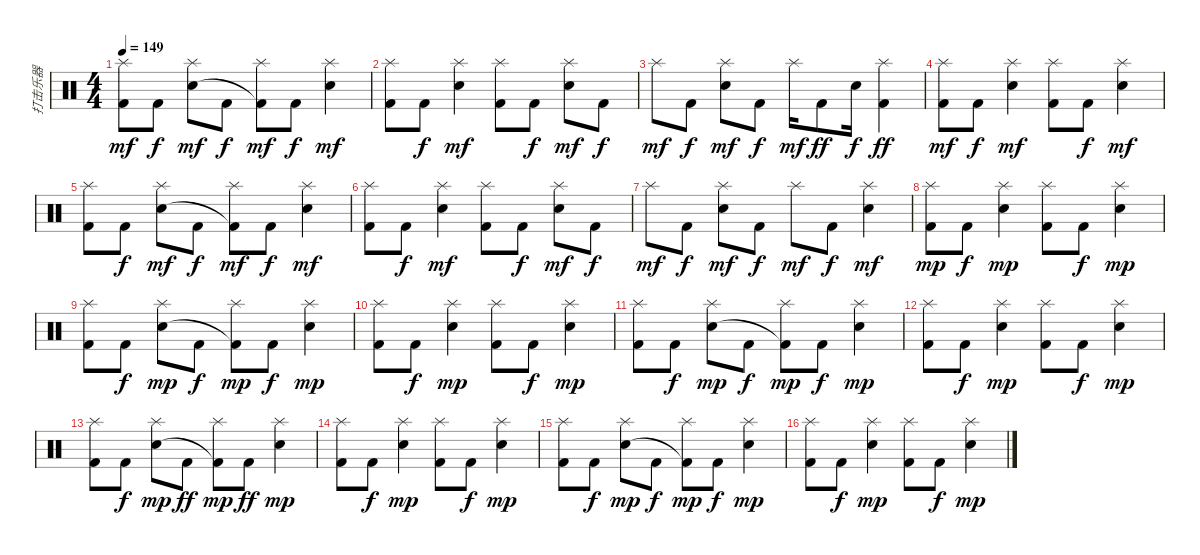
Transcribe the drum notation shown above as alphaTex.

\track ("打击乐器" "打击乐器") {instrument percussion}
\staff {score}
\articulation defaults
\ts (4 4)
\tempo 149
\clef neutral
\ks c
("Splash (hit)" "Kick (hit) 2").8{dy mf} "Kick (hit) 2".8{dy f} ("Splash (hit)" "Electric Snare (hit)").8{dy mf} "Kick (hit) 2".8{dy f} ("Splash (hit)" "Kick (hit) 2"{t}).8{dy mf} "Kick (hit) 2".8{dy f} ("Splash (hit)" "Electric Snare (hit)").4{dy mf} |
("Splash (hit)" "Kick (hit) 2").8 "Kick (hit) 2".8{dy f} ("Splash (hit)" "Electric Snare (hit)").4{dy mf} ("Splash (hit)" "Kick (hit) 2").8 "Kick (hit) 2".8{dy f} ("Splash (hit)" "Electric Snare (hit)").8{dy mf} "Kick (hit) 2".8{dy f} |
"Splash (hit)".8{dy mf} "Kick (hit) 2".8{dy f} ("Splash (hit)" "Electric Snare (hit)").8{dy mf} "Kick (hit) 2".8{dy f} "Splash (hit)".16{dy mf} "Kick (hit) 2".8{dy ff} "Electric Snare (hit)".16{dy f} ("Splash (hit)" "Kick (hit) 2").4{dy ff} |
("Splash (hit)" "Kick (hit) 2").8{dy mf} "Kick (hit) 2".8{dy f} ("Splash (hit)" "Electric Snare (hit)").4{dy mf} ("Splash (hit)" "Kick (hit) 2").8 "Kick (hit) 2".8{dy f} ("Splash (hit)" "Electric Snare (hit)").4{dy mf} |
("Splash (hit)" "Kick (hit) 2").8 "Kick (hit) 2".8{dy f} ("Splash (hit)" "Electric Snare (hit)").8{dy mf} "Kick (hit) 2".8{dy f} ("Splash (hit)" "Kick (hit) 2"{t}).8{dy mf} "Kick (hit) 2".8{dy f} ("Splash (hit)" "Electric Snare (hit)").4{dy mf} |
("Splash (hit)" "Kick (hit) 2").8 "Kick (hit) 2".8{dy f} ("Splash (hit)" "Electric Snare (hit)").4{dy mf} ("Splash (hit)" "Kick (hit) 2").8 "Kick (hit) 2".8{dy f} ("Splash (hit)" "Electric Snare (hit)").8{dy mf} "Kick (hit) 2".8{dy f} |
"Splash (hit)".8{dy mf} "Kick (hit) 2".8{dy f} ("Splash (hit)" "Electric Snare (hit)").8{dy mf} "Kick (hit) 2".8{dy f} "Splash (hit)".8{dy mf} "Kick (hit) 2".8{dy f} ("Splash (hit)" "Electric Snare (hit)").4{dy mf} |
("Splash (hit)" "Kick (hit) 2").8{dy mp} "Kick (hit) 2".8{dy f} ("Splash (hit)" "Electric Snare (hit)").4{dy mp} ("Splash (hit)" "Kick (hit) 2").8 "Kick (hit) 2".8{dy f} ("Splash (hit)" "Electric Snare (hit)").4{dy mp} |
("Splash (hit)" "Kick (hit) 2").8 "Kick (hit) 2".8{dy f} ("Splash (hit)" "Electric Snare (hit)").8{dy mp} "Kick (hit) 2".8{dy f} ("Splash (hit)" "Kick (hit) 2"{t}).8{dy mp} "Kick (hit) 2".8{dy f} ("Splash (hit)" "Electric Snare (hit)").4{dy mp} |
("Splash (hit)" "Kick (hit) 2").8 "Kick (hit) 2".8{dy f} ("Splash (hit)" "Electric Snare (hit)").4{dy mp} ("Splash (hit)" "Kick (hit) 2").8 "Kick (hit) 2".8{dy f} ("Splash (hit)" "Electric Snare (hit)").4{dy mp} |
("Splash (hit)" "Kick (hit) 2").8 "Kick (hit) 2".8{dy f} ("Splash (hit)" "Electric Snare (hit)").8{dy mp} "Kick (hit) 2".8{dy f} ("Splash (hit)" "Kick (hit) 2"{t}).8{dy mp} "Kick (hit) 2".8{dy f} ("Splash (hit)" "Electric Snare (hit)").4{dy mp} |
("Splash (hit)" "Kick (hit) 2").8 "Kick (hit) 2".8{dy f} ("Splash (hit)" "Electric Snare (hit)").4{dy mp} ("Splash (hit)" "Kick (hit) 2").8 "Kick (hit) 2".8{dy f} ("Splash (hit)" "Electric Snare (hit)").4{dy mp} |
("Splash (hit)" "Kick (hit) 2").8 "Kick (hit) 2".8{dy f} ("Splash (hit)" "Electric Snare (hit)").8{dy mp} "Kick (hit) 2".8{dy ff} ("Splash (hit)" "Kick (hit) 2"{t}).8{dy mp} "Kick (hit) 2".8{dy ff} ("Splash (hit)" "Electric Snare (hit)").4{dy mp} |
("Splash (hit)" "Kick (hit) 2").8 "Kick (hit) 2".8{dy f} ("Splash (hit)" "Electric Snare (hit)").4{dy mp} ("Splash (hit)" "Kick (hit) 2").8 "Kick (hit) 2".8{dy f} ("Splash (hit)" "Electric Snare (hit)").4{dy mp} |
("Splash (hit)" "Kick (hit) 2").8 "Kick (hit) 2".8{dy f} ("Splash (hit)" "Electric Snare (hit)").8{dy mp} "Kick (hit) 2".8{dy f} ("Splash (hit)" "Kick (hit) 2"{t}).8{dy mp} "Kick (hit) 2".8{dy f} ("Splash (hit)" "Electric Snare (hit)").4{dy mp} |
("Splash (hit)" "Kick (hit) 2").8 "Kick (hit) 2".8{dy f} ("Splash (hit)" "Electric Snare (hit)").4{dy mp} ("Splash (hit)" "Kick (hit) 2").8 "Kick (hit) 2".8{dy f} ("Splash (hit)" "Electric Snare (hit)").4{dy mp}
